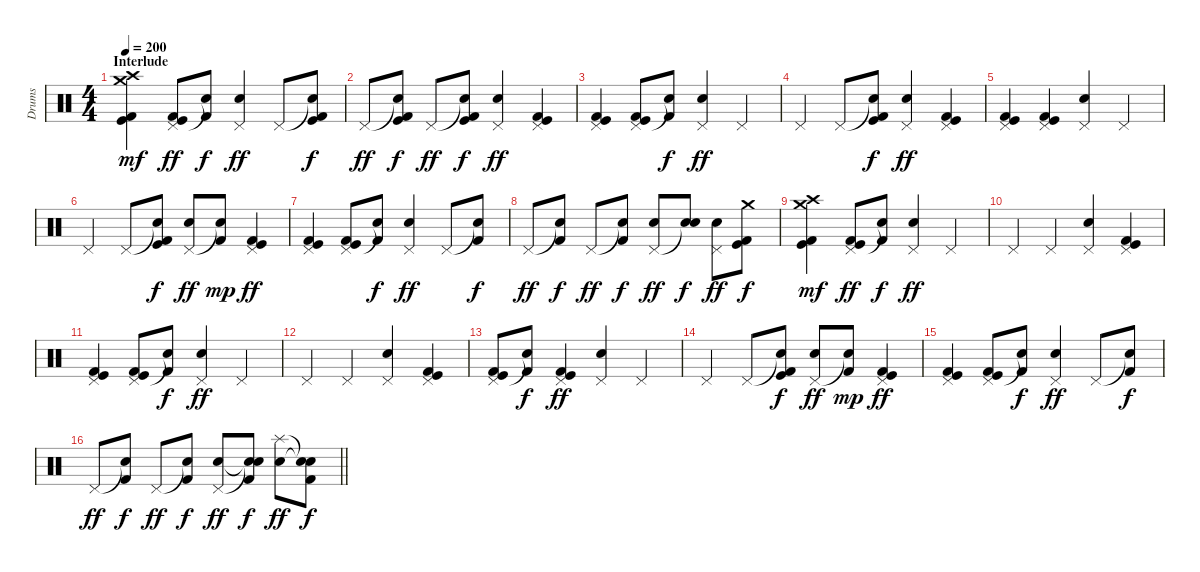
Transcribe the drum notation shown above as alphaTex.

\track ("Drums" "Drums") {instrument percussion}
\staff {score}
\articulation defaults
\ts (4 4)
\section ("" "Interlude")
\tempo 200
\clef neutral
\ks c
("Crash high (hit)" "Crash medium (hit)" "Kick (hit)" "Kick (hit) 2").4{dy mf} ("Pedal Hi-Hat (hit)" "Kick (hit)" "Kick (hit) 2").8{dy ff} ("Snare (hit)"{t} "Kick (hit) 2").8{dy f} ("Pedal Hi-Hat (hit)" "Snare (hit) 2").4{dy ff} "Pedal Hi-Hat (hit)".8 ("Snare (hit)"{t} "Kick (hit)" "Kick (hit) 2").8{dy f} |
"Pedal Hi-Hat (hit)".8{dy ff} ("Snare (hit)"{t} "Kick (hit)" "Kick (hit) 2").8{dy f} "Pedal Hi-Hat (hit)".8{dy ff} ("Snare (hit)"{t} "Kick (hit)" "Kick (hit) 2").8{dy f} ("Pedal Hi-Hat (hit)" "Snare (hit) 2").4{dy ff} ("Pedal Hi-Hat (hit)" "Kick (hit)" "Kick (hit) 2").4 |
("Pedal Hi-Hat (hit)" "Kick (hit)" "Kick (hit) 2").4 ("Pedal Hi-Hat (hit)" "Kick (hit)" "Kick (hit) 2").8 ("Snare (hit)"{t} "Kick (hit) 2").8{dy f} ("Pedal Hi-Hat (hit)" "Snare (hit) 2").4{dy ff} "Pedal Hi-Hat (hit)".4 |
"Pedal Hi-Hat (hit)".4 "Pedal Hi-Hat (hit)".8 ("Snare (hit)"{t} "Kick (hit)" "Kick (hit) 2").8{dy f} ("Pedal Hi-Hat (hit)" "Snare (hit) 2").4{dy ff} ("Pedal Hi-Hat (hit)" "Kick (hit)" "Kick (hit) 2").4 |
("Pedal Hi-Hat (hit)" "Kick (hit)" "Kick (hit) 2").4 ("Pedal Hi-Hat (hit)" "Kick (hit)" "Kick (hit) 2").4 ("Pedal Hi-Hat (hit)" "Snare (hit) 2").4 "Pedal Hi-Hat (hit)".4 |
"Pedal Hi-Hat (hit)".4 "Pedal Hi-Hat (hit)".8 ("Snare (hit)"{t} "Kick (hit)" "Kick (hit) 2").8{dy f} ("Pedal Hi-Hat (hit)" "Snare (hit) 2").8{dy ff} ("Snare (hit)"{t} "Kick (hit) 2").8{dy mp} ("Pedal Hi-Hat (hit)" "Kick (hit)" "Kick (hit) 2").4{dy ff} |
("Pedal Hi-Hat (hit)" "Kick (hit)" "Kick (hit) 2").4 ("Pedal Hi-Hat (hit)" "Kick (hit)" "Kick (hit) 2").8 ("Snare (hit)"{t} "Kick (hit) 2").8{dy f} ("Pedal Hi-Hat (hit)" "Snare (hit) 2").4{dy ff} "Pedal Hi-Hat (hit)".8 ("Snare (hit)"{t} "Kick (hit) 2").8{dy f} |
"Pedal Hi-Hat (hit)".8{dy ff} ("Snare (hit)"{t} "Kick (hit) 2").8{dy f} "Pedal Hi-Hat (hit)".8{dy ff} ("Snare (hit)"{t} "Kick (hit) 2").8{dy f} ("Pedal Hi-Hat (hit)" "Snare (hit) 2").8{dy ff} ("Snare (hit)"{t} "Snare (hit) 2").8{dy f} ("Pedal Hi-Hat (hit)" "Snare (hit) 2").8{dy ff} ("Crash medium (hit)" "Kick (hit)" "Kick (hit) 2").8{dy f} |
("Crash high (hit)" "Crash medium (hit)" "Kick (hit)" "Kick (hit) 2").4{dy mf} ("Pedal Hi-Hat (hit)" "Kick (hit)" "Kick (hit) 2").8{dy ff} ("Snare (hit)"{t} "Kick (hit) 2").8{dy f} ("Pedal Hi-Hat (hit)" "Snare (hit) 2").4{dy ff} "Pedal Hi-Hat (hit)".4 |
"Pedal Hi-Hat (hit)".4 "Pedal Hi-Hat (hit)".4 ("Pedal Hi-Hat (hit)" "Snare (hit) 2").4 ("Pedal Hi-Hat (hit)" "Kick (hit)" "Kick (hit) 2").4 |
("Pedal Hi-Hat (hit)" "Kick (hit)" "Kick (hit) 2").4 ("Pedal Hi-Hat (hit)" "Kick (hit)" "Kick (hit) 2").8 ("Snare (hit)"{t} "Kick (hit) 2").8{dy f} ("Pedal Hi-Hat (hit)" "Snare (hit) 2").4{dy ff} "Pedal Hi-Hat (hit)".4 |
"Pedal Hi-Hat (hit)".4 "Pedal Hi-Hat (hit)".4 ("Pedal Hi-Hat (hit)" "Snare (hit) 2").4 ("Pedal Hi-Hat (hit)" "Kick (hit)" "Kick (hit) 2").4 |
("Pedal Hi-Hat (hit)" "Kick (hit)" "Kick (hit) 2").8 ("Snare (hit)"{t} "Kick (hit) 2").8{dy f} ("Pedal Hi-Hat (hit)" "Kick (hit)" "Kick (hit) 2").4{dy ff} ("Pedal Hi-Hat (hit)" "Snare (hit) 2").4 "Pedal Hi-Hat (hit)".4 |
"Pedal Hi-Hat (hit)".4 "Pedal Hi-Hat (hit)".8 ("Snare (hit)"{t} "Kick (hit)" "Kick (hit) 2").8{dy f} ("Pedal Hi-Hat (hit)" "Snare (hit) 2").8{dy ff} ("Snare (hit)"{t} "Kick (hit) 2").8{dy mp} ("Pedal Hi-Hat (hit)" "Kick (hit)" "Kick (hit) 2").4{dy ff} |
("Pedal Hi-Hat (hit)" "Kick (hit)" "Kick (hit) 2").4 ("Pedal Hi-Hat (hit)" "Kick (hit)" "Kick (hit) 2").8 ("Snare (hit)"{t} "Kick (hit) 2").8{dy f} ("Pedal Hi-Hat (hit)" "Snare (hit) 2").4{dy ff} "Pedal Hi-Hat (hit)".8 ("Snare (hit)"{t} "Kick (hit) 2").8{dy f} |
\barLineRight lightlight "Pedal Hi-Hat (hit)".8{dy ff}
("Snare (hit)"{t} "Kick (hit) 2").8{dy f} "Pedal Hi-Hat (hit)".8{dy ff} ("Snare (hit)"{t} "Kick (hit) 2").8{dy f} ("Pedal Hi-Hat (hit)" "Snare (hit) 2").8{dy ff} ("Snare (hit)"{t} "Snare (hit)"{t} "Kick (hit) 2").8{dy f} ("Splash (hit)" "Snare (hit) 2").8{dy ff} ("Snare (hit)"{t} "Snare (hit)"{t} "Kick (hit) 2").8{dy f}
